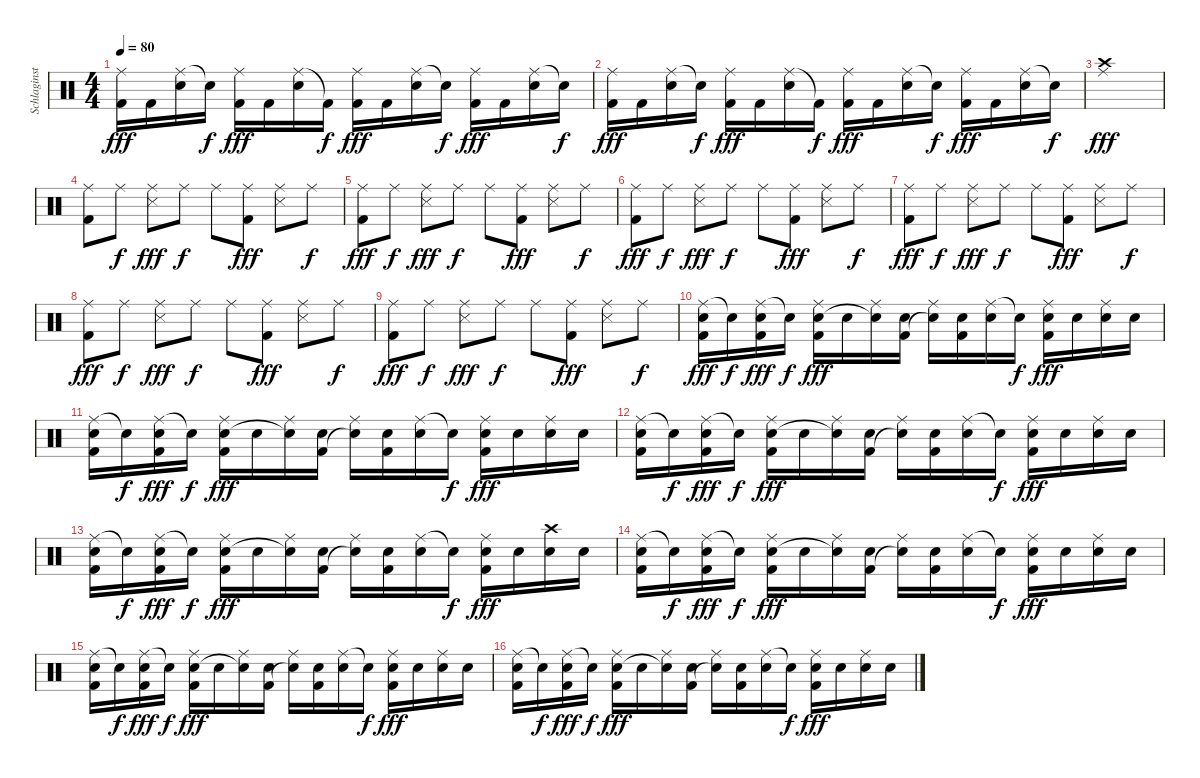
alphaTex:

\track ("Schlaginstrumente - Auswahl" "Schlaginst") {instrument percussion}
\staff {score}
\articulation defaults
\ts (4 4)
\tempo 80
\clef neutral
\ks c
("Ride (middle)" "Kick (hit) 2").16{dy fff} "Kick (hit) 2".16 ("Ride (middle)" "Snare (hit) 2").16 "Snare (hit)"{t}.16{dy f} ("Ride (middle)" "Kick (hit) 2").16{dy fff} "Kick (hit) 2".16 ("Ride (middle)" "Snare (hit) 2").16 "Kick (hit) 2"{t}.16{dy f} ("Ride (middle)" "Kick (hit) 2").16{dy fff} "Kick (hit) 2".16 ("Ride (middle)" "Snare (hit) 2").16 "Snare (hit)"{t}.16{dy f} ("Ride (middle)" "Kick (hit) 2").16{dy fff} "Kick (hit) 2".16 ("Ride (middle)" "Snare (hit) 2").16 "Snare (hit)"{t}.16{dy f} |
("Ride (middle)" "Kick (hit) 2").16{dy fff} "Kick (hit) 2".16 ("Ride (middle)" "Snare (hit) 2").16 "Snare (hit)"{t}.16{dy f} ("Ride (middle)" "Kick (hit) 2").16{dy fff} "Kick (hit) 2".16 ("Ride (middle)" "Snare (hit) 2").16 "Kick (hit) 2"{t}.16{dy f} ("Ride (middle)" "Kick (hit) 2").16{dy fff} "Kick (hit) 2".16 ("Ride (middle)" "Snare (hit) 2").16 "Snare (hit)"{t}.16{dy f} ("Ride (middle)" "Kick (hit) 2").16{dy fff} "Kick (hit) 2".16 ("Ride (middle)" "Snare (hit) 2").16 "Snare (hit)"{t}.16{dy f} |
("Ride (middle)" "Crash high (hit)").1{dy fff} |
("Ride (middle)" "Kick (hit) 2").8 "Ride (middle)".8{dy f} ("Ride (middle)" "Snare (side stick) 3").8{dy fff} "Ride (middle)".8{dy f} "Ride (middle)".8 ("Ride (middle)" "Kick (hit) 2").8{dy fff} ("Ride (middle)" "Snare (side stick) 3").8 "Ride (middle)".8{dy f} |
("Ride (middle)" "Kick (hit) 2").8{dy fff} "Ride (middle)".8{dy f} ("Ride (middle)" "Snare (side stick) 3").8{dy fff} "Ride (middle)".8{dy f} "Ride (middle)".8 ("Ride (middle)" "Kick (hit) 2").8{dy fff} ("Ride (middle)" "Snare (side stick) 3").8 "Ride (middle)".8{dy f} |
("Ride (middle)" "Kick (hit) 2").8{dy fff} "Ride (middle)".8{dy f} ("Ride (middle)" "Snare (side stick) 3").8{dy fff} "Ride (middle)".8{dy f} "Ride (middle)".8 ("Ride (middle)" "Kick (hit) 2").8{dy fff} ("Ride (middle)" "Snare (side stick) 3").8 "Ride (middle)".8{dy f} |
("Ride (middle)" "Kick (hit) 2").8{dy fff} "Ride (middle)".8{dy f} ("Ride (middle)" "Snare (side stick) 3").8{dy fff} "Ride (middle)".8{dy f} "Ride (middle)".8 ("Ride (middle)" "Kick (hit) 2").8{dy fff} ("Ride (middle)" "Snare (side stick) 3").8 "Ride (middle)".8{dy f} |
("Ride (middle)" "Kick (hit) 2").8{dy fff} "Ride (middle)".8{dy f} ("Ride (middle)" "Snare (side stick) 3").8{dy fff} "Ride (middle)".8{dy f} "Ride (middle)".8 ("Ride (middle)" "Kick (hit) 2").8{dy fff} ("Ride (middle)" "Snare (side stick) 3").8 "Ride (middle)".8{dy f} |
("Ride (middle)" "Kick (hit) 2").8{dy fff} "Ride (middle)".8{dy f} ("Ride (middle)" "Snare (side stick) 3").8{dy fff} "Ride (middle)".8{dy f} "Ride (middle)".8 ("Ride (middle)" "Kick (hit) 2").8{dy fff} ("Ride (middle)" "Snare (side stick) 3").8 "Ride (middle)".8{dy f} |
("Ride (middle)" "Snare (hit) 2" "Kick (hit) 2").16{dy fff} "Snare (hit)"{t}.16{dy f} ("Ride (middle)" "Snare (hit) 2" "Kick (hit) 2").16{dy fff} "Snare (hit)"{t}.16{dy f} ("Ride (middle)" "Snare (hit) 2" "Kick (hit) 2").16{dy fff} "Snare (hit) 2".16 ("Ride (middle)" "Snare (hit)"{t}).16 ("Snare (hit) 2" "Kick (hit) 2").16 ("Ride (middle)" "Snare (hit) 2"{t}).16 ("Snare (hit) 2" "Kick (hit) 2").16 ("Ride (middle)" "Snare (hit) 2").16 "Snare (hit) 2"{t}.16{dy f} ("Ride (middle)" "Snare (hit) 2" "Kick (hit) 2").16{dy fff} "Snare (hit) 2".16 ("Ride (middle)" "Snare (hit) 2").16 "Snare (hit) 2".16 |
("Ride (middle)" "Snare (hit) 2" "Kick (hit) 2").16 "Snare (hit)"{t}.16{dy f} ("Ride (middle)" "Snare (hit) 2" "Kick (hit) 2").16{dy fff} "Snare (hit)"{t}.16{dy f} ("Ride (middle)" "Snare (hit) 2" "Kick (hit) 2").16{dy fff} "Snare (hit) 2".16 ("Ride (middle)" "Snare (hit)"{t}).16 ("Snare (hit) 2" "Kick (hit) 2").16 ("Ride (middle)" "Snare (hit) 2"{t}).16 ("Snare (hit) 2" "Kick (hit) 2").16 ("Ride (middle)" "Snare (hit) 2").16 "Snare (hit) 2"{t}.16{dy f} ("Ride (middle)" "Snare (hit) 2" "Kick (hit) 2").16{dy fff} "Snare (hit) 2".16 ("Ride (middle)" "Snare (hit) 2").16 "Snare (hit) 2".16 |
("Ride (middle)" "Snare (hit) 2" "Kick (hit) 2").16 "Snare (hit)"{t}.16{dy f} ("Ride (middle)" "Snare (hit) 2" "Kick (hit) 2").16{dy fff} "Snare (hit)"{t}.16{dy f} ("Ride (middle)" "Snare (hit) 2" "Kick (hit) 2").16{dy fff} "Snare (hit) 2".16 ("Ride (middle)" "Snare (hit)"{t}).16 ("Snare (hit) 2" "Kick (hit) 2").16 ("Ride (middle)" "Snare (hit) 2"{t}).16 ("Snare (hit) 2" "Kick (hit) 2").16 ("Ride (middle)" "Snare (hit) 2").16 "Snare (hit) 2"{t}.16{dy f} ("Ride (middle)" "Snare (hit) 2" "Kick (hit) 2").16{dy fff} "Snare (hit) 2".16 ("Ride (middle)" "Snare (hit) 2").16 "Snare (hit) 2".16 |
("Ride (middle)" "Snare (hit) 2" "Kick (hit) 2").16 "Snare (hit)"{t}.16{dy f} ("Ride (middle)" "Snare (hit) 2" "Kick (hit) 2").16{dy fff} "Snare (hit)"{t}.16{dy f} ("Ride (middle)" "Snare (hit) 2" "Kick (hit) 2").16{dy fff} "Snare (hit) 2".16 ("Ride (middle)" "Snare (hit)"{t}).16 ("Snare (hit) 2" "Kick (hit) 2").16 ("Ride (middle)" "Snare (hit) 2"{t}).16 ("Snare (hit) 2" "Kick (hit) 2").16 ("Ride (middle)" "Snare (hit) 2").16 "Snare (hit) 2"{t}.16{dy f} ("Ride (middle)" "Snare (hit) 2" "Kick (hit) 2").16{dy fff} "Snare (hit) 2".16 ("Crash high (hit)" "Snare (hit) 2").16 "Snare (hit) 2".16 |
("Ride (middle)" "Snare (hit) 2" "Kick (hit) 2").16 "Snare (hit)"{t}.16{dy f} ("Ride (middle)" "Snare (hit) 2" "Kick (hit) 2").16{dy fff} "Snare (hit)"{t}.16{dy f} ("Ride (middle)" "Snare (hit) 2" "Kick (hit) 2").16{dy fff} "Snare (hit) 2".16 ("Ride (middle)" "Snare (hit)"{t}).16 ("Snare (hit) 2" "Kick (hit) 2").16 ("Ride (middle)" "Snare (hit) 2"{t}).16 ("Snare (hit) 2" "Kick (hit) 2").16 ("Ride (middle)" "Snare (hit) 2").16 "Snare (hit) 2"{t}.16{dy f} ("Ride (middle)" "Snare (hit) 2" "Kick (hit) 2").16{dy fff} "Snare (hit) 2".16 ("Ride (middle)" "Snare (hit) 2").16 "Snare (hit) 2".16 |
("Ride (middle)" "Snare (hit) 2" "Kick (hit) 2").16 "Snare (hit)"{t}.16{dy f} ("Ride (middle)" "Snare (hit) 2" "Kick (hit) 2").16{dy fff} "Snare (hit)"{t}.16{dy f} ("Ride (middle)" "Snare (hit) 2" "Kick (hit) 2").16{dy fff} "Snare (hit) 2".16 ("Ride (middle)" "Snare (hit)"{t}).16 ("Snare (hit) 2" "Kick (hit) 2").16 ("Ride (middle)" "Snare (hit) 2"{t}).16 ("Snare (hit) 2" "Kick (hit) 2").16 ("Ride (middle)" "Snare (hit) 2").16 "Snare (hit) 2"{t}.16{dy f} ("Ride (middle)" "Snare (hit) 2" "Kick (hit) 2").16{dy fff} "Snare (hit) 2".16 ("Ride (middle)" "Snare (hit) 2").16 "Snare (hit) 2".16 |
("Ride (middle)" "Snare (hit) 2" "Kick (hit) 2").16 "Snare (hit)"{t}.16{dy f} ("Ride (middle)" "Snare (hit) 2" "Kick (hit) 2").16{dy fff} "Snare (hit)"{t}.16{dy f} ("Ride (middle)" "Snare (hit) 2" "Kick (hit) 2").16{dy fff} "Snare (hit) 2".16 ("Ride (middle)" "Snare (hit)"{t}).16 ("Snare (hit) 2" "Kick (hit) 2").16 ("Ride (middle)" "Snare (hit) 2"{t}).16 ("Snare (hit) 2" "Kick (hit) 2").16 ("Ride (middle)" "Snare (hit) 2").16 "Snare (hit) 2"{t}.16{dy f} ("Ride (middle)" "Snare (hit) 2" "Kick (hit) 2").16{dy fff} "Snare (hit) 2".16 ("Ride (middle)" "Snare (hit) 2").16 "Snare (hit) 2".16
